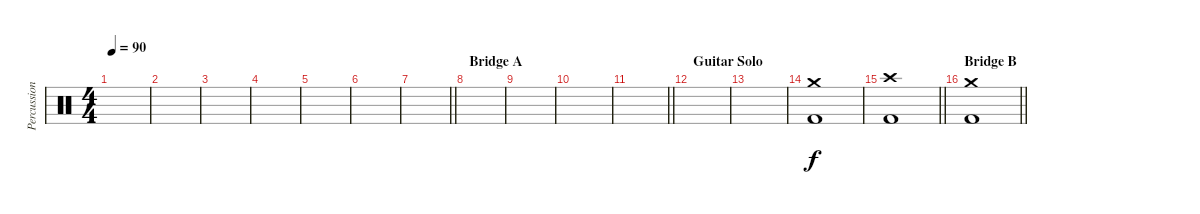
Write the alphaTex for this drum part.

\track ("Percussion" "Percussion") {instrument percussion}
\staff {score}
\articulation defaults
\ts (4 4)
\tempo 90
\clef neutral
\ks c
|
|
|
|
|
|
\barLineRight lightlight
|
\section ("" "Bridge A")
|
|
|
\barLineRight lightlight
|
\section ("" "Guitar Solo")
|
|
("Crash medium (hit)" "Kick (hit) 2").1 |
\barLineRight lightlight
("Crash high (hit)" "Kick (hit) 2").1 |
\section ("" "Bridge B")
\barLineRight lightlight
("Crash medium (hit)" "Kick (hit) 2").1
